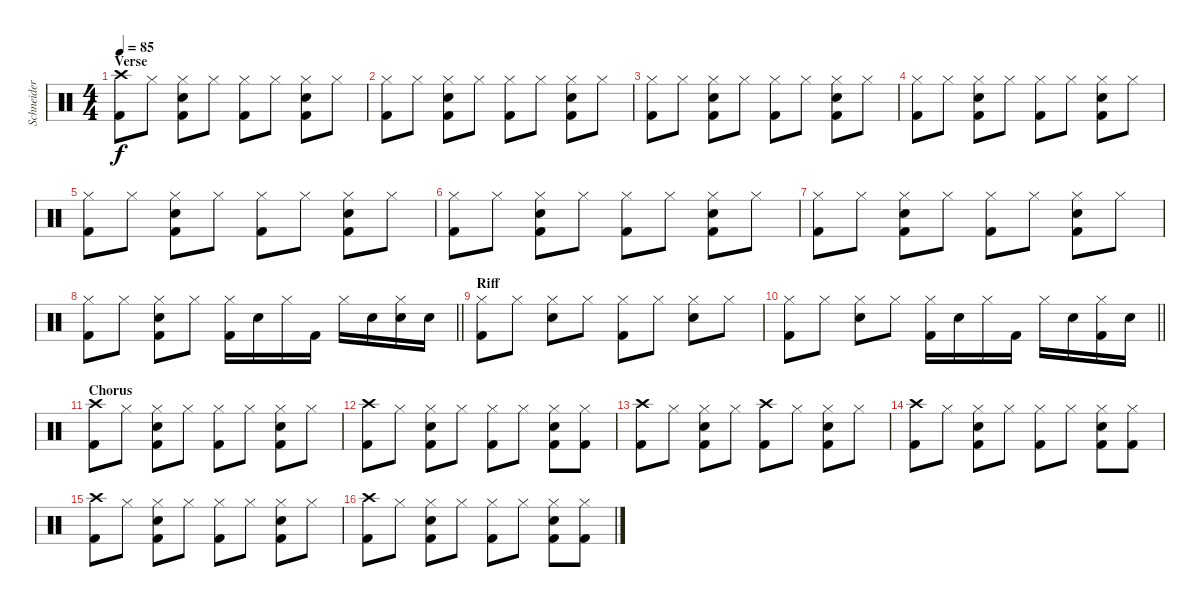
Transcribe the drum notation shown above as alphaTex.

\track ("Schneider" "Schneider") {instrument percussion}
\staff {score}
\articulation defaults
\ts (4 4)
\section ("" "Verse")
\tempo 85
\clef neutral
\ks c
("Crash high (hit)" "Kick (hit) 2").8{dy f} "Hi-Hat (closed)".8 ("Hi-Hat (closed)" "Electric Snare (hit)" "Kick (hit) 2").8 "Hi-Hat (closed)".8 ("Hi-Hat (closed)" "Kick (hit) 2").8 "Hi-Hat (closed)".8 ("Hi-Hat (closed)" "Electric Snare (hit)" "Kick (hit) 2").8 "Hi-Hat (closed)".8 |
("Hi-Hat (closed)" "Kick (hit) 2").8 "Hi-Hat (closed)".8 ("Hi-Hat (closed)" "Electric Snare (hit)" "Kick (hit) 2").8 "Hi-Hat (closed)".8 ("Hi-Hat (closed)" "Kick (hit) 2").8 "Hi-Hat (closed)".8 ("Hi-Hat (closed)" "Electric Snare (hit)" "Kick (hit) 2").8 "Hi-Hat (closed)".8 |
("Hi-Hat (closed)" "Kick (hit) 2").8 "Hi-Hat (closed)".8 ("Hi-Hat (closed)" "Electric Snare (hit)" "Kick (hit) 2").8 "Hi-Hat (closed)".8 ("Hi-Hat (closed)" "Kick (hit) 2").8 "Hi-Hat (closed)".8 ("Hi-Hat (closed)" "Electric Snare (hit)" "Kick (hit) 2").8 "Hi-Hat (closed)".8 |
("Hi-Hat (closed)" "Kick (hit) 2").8 "Hi-Hat (closed)".8 ("Hi-Hat (closed)" "Electric Snare (hit)" "Kick (hit) 2").8 "Hi-Hat (closed)".8 ("Hi-Hat (closed)" "Kick (hit) 2").8 "Hi-Hat (closed)".8 ("Hi-Hat (closed)" "Electric Snare (hit)" "Kick (hit) 2").8 "Hi-Hat (closed)".8 |
("Hi-Hat (closed)" "Kick (hit) 2").8 "Hi-Hat (closed)".8 ("Hi-Hat (closed)" "Electric Snare (hit)" "Kick (hit) 2").8 "Hi-Hat (closed)".8 ("Hi-Hat (closed)" "Kick (hit) 2").8 "Hi-Hat (closed)".8 ("Hi-Hat (closed)" "Electric Snare (hit)" "Kick (hit) 2").8 "Hi-Hat (closed)".8 |
("Hi-Hat (closed)" "Kick (hit) 2").8 "Hi-Hat (closed)".8 ("Hi-Hat (closed)" "Electric Snare (hit)" "Kick (hit) 2").8 "Hi-Hat (closed)".8 ("Hi-Hat (closed)" "Kick (hit) 2").8 "Hi-Hat (closed)".8 ("Hi-Hat (closed)" "Electric Snare (hit)" "Kick (hit) 2").8 "Hi-Hat (closed)".8 |
("Hi-Hat (closed)" "Kick (hit) 2").8 "Hi-Hat (closed)".8 ("Hi-Hat (closed)" "Electric Snare (hit)" "Kick (hit) 2").8 "Hi-Hat (closed)".8 ("Hi-Hat (closed)" "Kick (hit) 2").8 "Hi-Hat (closed)".8 ("Hi-Hat (closed)" "Electric Snare (hit)" "Kick (hit) 2").8 "Hi-Hat (closed)".8 |
\barLineRight lightlight
("Hi-Hat (closed)" "Kick (hit) 2").8 "Hi-Hat (closed)".8 ("Hi-Hat (closed)" "Electric Snare (hit)" "Kick (hit) 2").8 "Hi-Hat (closed)".8 ("Hi-Hat (closed)" "Kick (hit) 2").16 "Electric Snare (hit)".16 "Hi-Hat (closed)".16 "Kick (hit) 2".16 "Hi-Hat (closed)".16 "Electric Snare (hit)".16 ("Hi-Hat (closed)" "Electric Snare (hit)").16 "Electric Snare (hit)".16 |
\section ("" "Riff")
("Hi-Hat (closed)" "Kick (hit) 2").8 "Hi-Hat (closed)".8 ("Hi-Hat (closed)" "Electric Snare (hit)").8 "Hi-Hat (closed)".8 ("Hi-Hat (closed)" "Kick (hit) 2").8 "Hi-Hat (closed)".8 ("Hi-Hat (closed)" "Electric Snare (hit)").8 "Hi-Hat (closed)".8 |
\barLineRight lightlight
("Hi-Hat (closed)" "Kick (hit) 2").8 "Hi-Hat (closed)".8 ("Hi-Hat (closed)" "Electric Snare (hit)").8 "Hi-Hat (closed)".8 ("Hi-Hat (closed)" "Kick (hit) 2").16 "Electric Snare (hit)".16 "Hi-Hat (closed)".16 "Kick (hit) 2".16 "Hi-Hat (closed)".16 "Electric Snare (hit)".16 ("Hi-Hat (closed)" "Kick (hit) 2").16 "Electric Snare (hit)".16 |
\section ("" "Chorus")
("Crash high (hit)" "Kick (hit) 2").8 "Hi-Hat (closed)".8 ("Hi-Hat (closed)" "Electric Snare (hit)" "Kick (hit) 2").8 "Hi-Hat (closed)".8 ("Hi-Hat (closed)" "Kick (hit) 2").8 "Hi-Hat (closed)".8 ("Hi-Hat (closed)" "Electric Snare (hit)" "Kick (hit) 2").8 "Hi-Hat (closed)".8 |
("Crash high (hit)" "Kick (hit) 2").8 "Hi-Hat (closed)".8 ("Hi-Hat (closed)" "Electric Snare (hit)" "Kick (hit) 2").8 "Hi-Hat (closed)".8 ("Hi-Hat (closed)" "Kick (hit) 2").8 "Hi-Hat (closed)".8 ("Hi-Hat (closed)" "Electric Snare (hit)" "Kick (hit) 2").8 ("Hi-Hat (closed)" "Kick (hit) 2").8 |
("Crash high (hit)" "Kick (hit) 2").8 "Hi-Hat (closed)".8 ("Hi-Hat (closed)" "Electric Snare (hit)" "Kick (hit) 2").8 "Hi-Hat (closed)".8 ("Crash high (hit)" "Kick (hit) 2").8 "Hi-Hat (closed)".8 ("Hi-Hat (closed)" "Electric Snare (hit)" "Kick (hit) 2").8 "Hi-Hat (closed)".8 |
("Crash high (hit)" "Kick (hit) 2").8 "Hi-Hat (closed)".8 ("Hi-Hat (closed)" "Electric Snare (hit)" "Kick (hit) 2").8 "Hi-Hat (closed)".8 ("Hi-Hat (closed)" "Kick (hit) 2").8 "Hi-Hat (closed)".8 ("Hi-Hat (closed)" "Electric Snare (hit)" "Kick (hit) 2").8 ("Hi-Hat (closed)" "Kick (hit) 2").8 |
("Crash high (hit)" "Kick (hit) 2").8 "Hi-Hat (closed)".8 ("Hi-Hat (closed)" "Electric Snare (hit)" "Kick (hit) 2").8 "Hi-Hat (closed)".8 ("Hi-Hat (closed)" "Kick (hit) 2").8 "Hi-Hat (closed)".8 ("Hi-Hat (closed)" "Electric Snare (hit)" "Kick (hit) 2").8 "Hi-Hat (closed)".8 |
("Crash high (hit)" "Kick (hit) 2").8 "Hi-Hat (closed)".8 ("Hi-Hat (closed)" "Electric Snare (hit)" "Kick (hit) 2").8 "Hi-Hat (closed)".8 ("Hi-Hat (closed)" "Kick (hit) 2").8 "Hi-Hat (closed)".8 ("Hi-Hat (closed)" "Electric Snare (hit)" "Kick (hit) 2").8 ("Hi-Hat (closed)" "Kick (hit) 2").8
